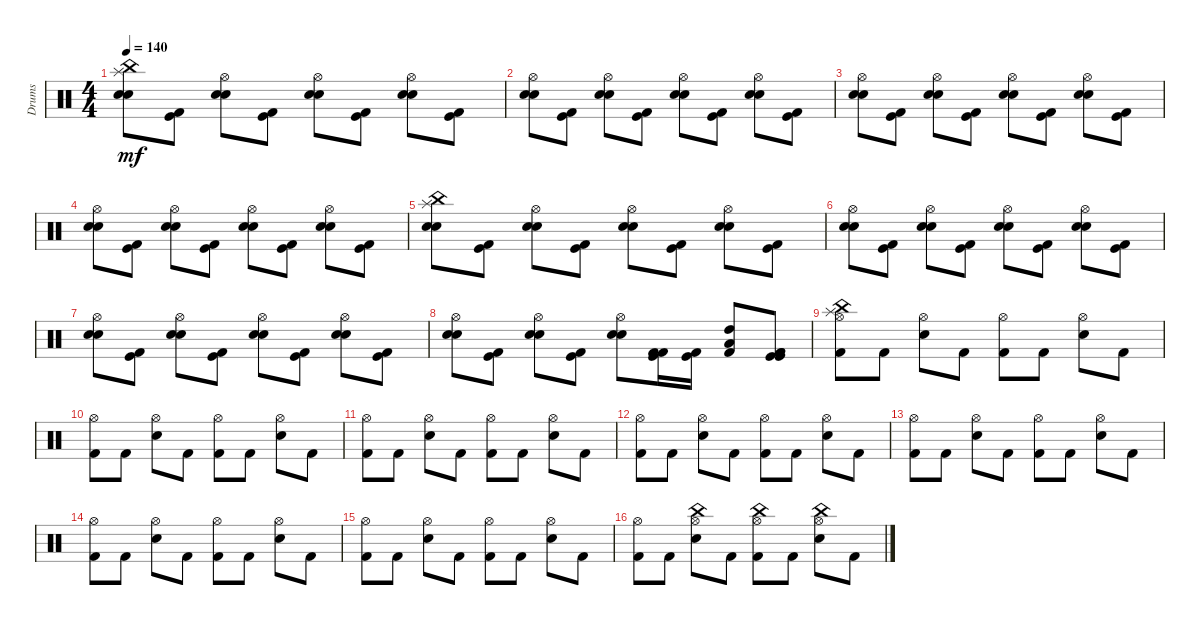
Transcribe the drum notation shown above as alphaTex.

\track ("Drums" "Drums") {instrument percussion}
\staff {score}
\articulation defaults
\ts (4 4)
\tempo 140
\clef neutral
\ks c
("Snare (hit) 2" "Electric Snare (hit)" "Splash (hit)" "China (hit)").8{dy mf} ("Kick (hit)" "Kick (hit) 2").8 ("Electric Snare (hit)" "Snare (hit) 2" "Hi-Hat (open)").8 ("Kick (hit)" "Kick (hit) 2").8 ("Hi-Hat (open)" "Snare (hit) 2" "Electric Snare (hit)").8 ("Kick (hit)" "Kick (hit) 2").8 ("Electric Snare (hit)" "Snare (hit) 2" "Hi-Hat (open)").8 ("Kick (hit)" "Kick (hit) 2").8 |
("Hi-Hat (open)" "Snare (hit) 2" "Electric Snare (hit)").8 ("Kick (hit) 2" "Kick (hit)").8 ("Snare (hit) 2" "Hi-Hat (open)" "Electric Snare (hit)").8 ("Kick (hit)" "Kick (hit) 2").8 ("Hi-Hat (open)" "Snare (hit) 2" "Electric Snare (hit)").8 ("Kick (hit)" "Kick (hit) 2").8 ("Electric Snare (hit)" "Snare (hit) 2" "Hi-Hat (open)").8 ("Kick (hit)" "Kick (hit) 2").8 |
("Hi-Hat (open)" "Snare (hit) 2" "Electric Snare (hit)").8 ("Kick (hit)" "Kick (hit) 2").8 ("Snare (hit) 2" "Hi-Hat (open)" "Electric Snare (hit)").8 ("Kick (hit)" "Kick (hit) 2").8 ("Hi-Hat (open)" "Electric Snare (hit)" "Snare (hit) 2").8 ("Kick (hit)" "Kick (hit) 2").8 ("Electric Snare (hit)" "Snare (hit) 2" "Hi-Hat (open)").8 ("Kick (hit)" "Kick (hit) 2").8 |
("Hi-Hat (open)" "Snare (hit) 2" "Electric Snare (hit)").8 ("Kick (hit)" "Kick (hit) 2").8 ("Electric Snare (hit)" "Hi-Hat (open)" "Snare (hit) 2").8 ("Kick (hit)" "Kick (hit) 2").8 ("Hi-Hat (open)" "Snare (hit) 2" "Electric Snare (hit)").8 ("Kick (hit)" "Kick (hit) 2").8 ("Electric Snare (hit)" "Snare (hit) 2" "Hi-Hat (open)").8 ("Kick (hit)" "Kick (hit) 2").8 |
("Snare (hit) 2" "Electric Snare (hit)" "Splash (hit)" "China (hit)").8 ("Kick (hit) 2" "Kick (hit)").8 ("Snare (hit) 2" "Hi-Hat (open)" "Electric Snare (hit)").8 ("Kick (hit)" "Kick (hit) 2").8 ("Hi-Hat (open)" "Snare (hit) 2" "Electric Snare (hit)").8 ("Kick (hit)" "Kick (hit) 2").8 ("Electric Snare (hit)" "Snare (hit) 2" "Hi-Hat (open)").8 ("Kick (hit)" "Kick (hit) 2").8 |
("Hi-Hat (open)" "Snare (hit) 2" "Electric Snare (hit)").8 ("Kick (hit)" "Kick (hit) 2").8 ("Snare (hit) 2" "Hi-Hat (open)" "Electric Snare (hit)").8 ("Kick (hit)" "Kick (hit) 2").8 ("Hi-Hat (open)" "Electric Snare (hit)" "Snare (hit) 2").8 ("Kick (hit)" "Kick (hit) 2").8 ("Electric Snare (hit)" "Snare (hit) 2" "Hi-Hat (open)").8 ("Kick (hit)" "Kick (hit) 2").8 |
("Hi-Hat (open)" "Snare (hit) 2" "Electric Snare (hit)").8 ("Kick (hit) 2" "Kick (hit)").8 ("Snare (hit) 2" "Hi-Hat (open)" "Electric Snare (hit)").8 ("Kick (hit)" "Kick (hit) 2").8 ("Hi-Hat (open)" "Electric Snare (hit)" "Snare (hit) 2").8 ("Kick (hit)" "Kick (hit) 2").8 ("Electric Snare (hit)" "Snare (hit) 2" "Hi-Hat (open)").8 ("Kick (hit)" "Kick (hit) 2").8 |
("Hi-Hat (open)" "Snare (hit) 2" "Electric Snare (hit)").8 ("Kick (hit) 2" "Kick (hit)").8 ("Snare (hit) 2" "Electric Snare (hit)" "Hi-Hat (open)").8 ("Kick (hit)" "Kick (hit) 2").8 ("Hi-Hat (open)" "Snare (hit) 2" "Electric Snare (hit)").8 ("Kick (hit) 2" "Kick (hit)" "Kick (hit) 2").16 ("Kick (hit) 2" "Kick (hit)").16 ("Kick (hit) 2" "High Tom (hit)" "Low Tom (hit)").8 ("Kick (hit) 2" "Kick (hit) 2" "Kick (hit)" "Kick (hit)").8 |
("Splash (hit)" "China (hit)" "Hi-Hat (open)" "Kick (hit) 2").8 "Kick (hit) 2".8 ("Hi-Hat (open)" "Electric Snare (hit)").8 "Kick (hit) 2".8 ("Hi-Hat (open)" "Kick (hit) 2").8 "Kick (hit) 2".8 ("Hi-Hat (open)" "Electric Snare (hit)").8 "Kick (hit) 2".8 |
("Hi-Hat (open)" "Kick (hit) 2").8 "Kick (hit) 2".8 ("Electric Snare (hit)" "Hi-Hat (open)").8 "Kick (hit) 2".8 ("Hi-Hat (open)" "Kick (hit) 2").8 "Kick (hit) 2".8 ("Hi-Hat (open)" "Electric Snare (hit)").8 "Kick (hit) 2".8 |
("Hi-Hat (open)" "Kick (hit) 2").8 "Kick (hit) 2".8 ("Electric Snare (hit)" "Hi-Hat (open)").8 "Kick (hit) 2".8 ("Hi-Hat (open)" "Kick (hit) 2").8 "Kick (hit) 2".8 ("Hi-Hat (open)" "Electric Snare (hit)").8 "Kick (hit) 2".8 |
("Hi-Hat (open)" "Kick (hit) 2").8 "Kick (hit) 2".8 ("Electric Snare (hit)" "Hi-Hat (open)").8 "Kick (hit) 2".8 ("Hi-Hat (open)" "Kick (hit) 2").8 "Kick (hit) 2".8 ("Hi-Hat (open)" "Electric Snare (hit)").8 "Kick (hit) 2".8 |
("Hi-Hat (open)" "Kick (hit) 2").8 "Kick (hit) 2".8 ("Hi-Hat (open)" "Electric Snare (hit)").8 "Kick (hit) 2".8 ("Kick (hit) 2" "Hi-Hat (open)").8 "Kick (hit) 2".8 ("Hi-Hat (open)" "Electric Snare (hit)").8 "Kick (hit) 2".8 |
("Hi-Hat (open)" "Kick (hit) 2").8 "Kick (hit) 2".8 ("Hi-Hat (open)" "Electric Snare (hit)").8 "Kick (hit) 2".8 ("Hi-Hat (open)" "Kick (hit) 2").8 "Kick (hit) 2".8 ("Hi-Hat (open)" "Electric Snare (hit)").8 "Kick (hit) 2".8 |
("Hi-Hat (open)" "Kick (hit) 2").8 "Kick (hit) 2".8 ("Hi-Hat (open)" "Electric Snare (hit)").8 "Kick (hit) 2".8 ("Kick (hit) 2" "Hi-Hat (open)").8 "Kick (hit) 2".8 ("Hi-Hat (open)" "Electric Snare (hit)").8 "Kick (hit) 2".8 |
("Hi-Hat (open)" "Kick (hit) 2").8 "Kick (hit) 2".8 ("China (hit)" "Hi-Hat (open)" "Electric Snare (hit)").8 "Kick (hit) 2".8 ("China (hit)" "Kick (hit) 2" "Hi-Hat (open)").8 "Kick (hit) 2".8 ("Electric Snare (hit)" "Hi-Hat (open)" "China (hit)").8 "Kick (hit) 2".8
